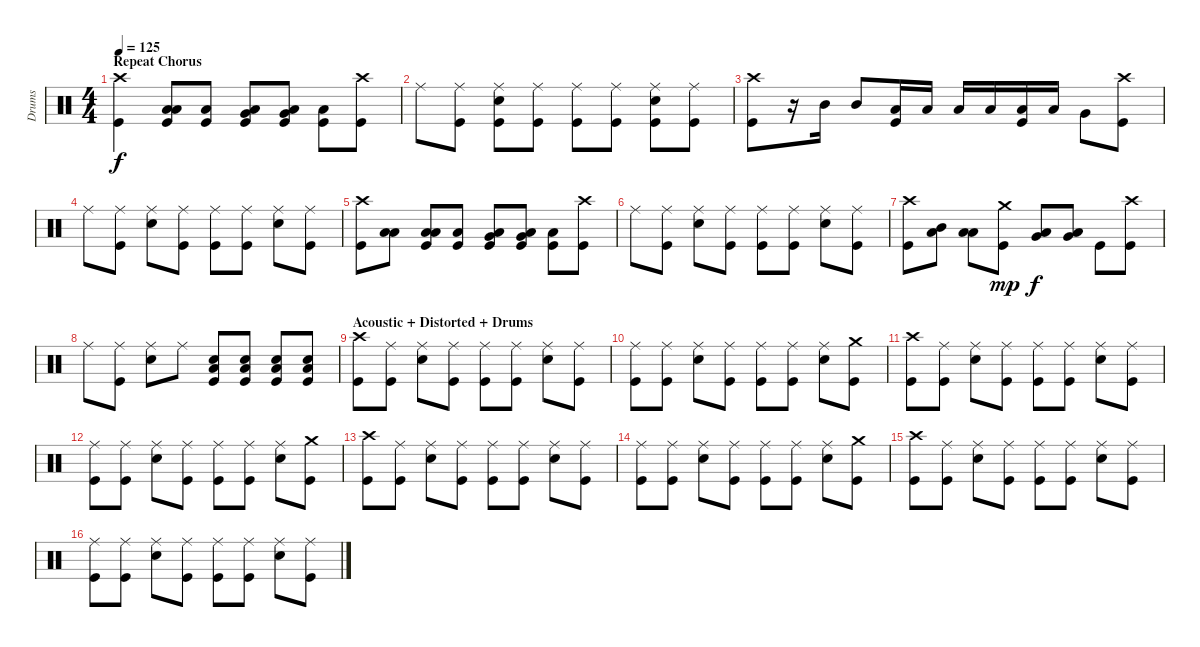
\track ("Drums" "Drums") {instrument percussion}
\staff {score}
\articulation defaults
\ts (4 4)
\section ("" "Repeat Chorus")
\tempo 125
\clef neutral
\ks c
("Crash high (hit)" "Kick (hit)").4{dy f} ("Low Tom (hit)" "Low Floor Tom (hit)" "Kick (hit)").8 ("Low Floor Tom (hit)" "Kick (hit)").8 ("Very Low Tom (hit)" "Low Floor Tom (hit)" "Kick (hit)").8 ("Very Low Tom (hit)" "Low Floor Tom (hit)" "Kick (hit)").8 ("Low Floor Tom (hit)" "Kick (hit)").8 ("Crash high (hit)" "Kick (hit)").8 |
"Ride (middle)".8 ("Ride (middle)" "Kick (hit)").8 ("Ride (middle)" "Snare (hit) 2" "Kick (hit)").8 ("Ride (middle)" "Kick (hit)").8 ("Ride (middle)" "Kick (hit)").8 ("Ride (middle)" "Kick (hit)").8 ("Ride (middle)" "Snare (hit) 2" "Kick (hit)").8 ("Ride (middle)" "Kick (hit)").8 |
("Crash high (hit)" "Kick (hit)").8 r.16 "Mid Tom (hit)".16 "Mid Tom (hit)".8 ("Low Tom (hit)" "Kick (hit)").16 "Low Tom (hit)".16 "Low Tom (hit)".16 "Low Tom (hit)".16 ("Low Tom (hit)" "Kick (hit)").16 "Low Tom (hit)".16 "Very Low Tom (hit)".8 ("Crash high (hit)" "Kick (hit)").8 |
"Ride (middle)".8 ("Ride (middle)" "Kick (hit)").8 ("Ride (middle)" "Snare (hit) 2").8 ("Ride (middle)" "Kick (hit)").8 ("Ride (middle)" "Kick (hit)").8 ("Ride (middle)" "Kick (hit)").8 ("Ride (middle)" "Snare (hit) 2").8 ("Ride (middle)" "Kick (hit)").8 |
("Crash high (hit)" "Kick (hit)").8 ("Low Tom (hit)" "Low Floor Tom (hit)").8 ("Low Tom (hit)" "Low Floor Tom (hit)" "Kick (hit)").8 ("Low Floor Tom (hit)" "Kick (hit)").8 ("Very Low Tom (hit)" "Low Floor Tom (hit)" "Kick (hit)").8 ("Very Low Tom (hit)" "Low Floor Tom (hit)" "Kick (hit)").8 ("Low Floor Tom (hit)" "Kick (hit)").8 ("Crash high (hit)" "Kick (hit)").8 |
"Ride (middle)".8 ("Ride (middle)" "Kick (hit)").8 ("Ride (middle)" "Snare (hit) 2").8 ("Ride (middle)" "Kick (hit)").8 ("Ride (middle)" "Kick (hit)").8 ("Ride (middle)" "Kick (hit)").8 ("Ride (middle)" "Snare (hit) 2").8 ("Ride (middle)" "Kick (hit)").8 |
("Crash high (hit)" "Kick (hit)").8 ("Mid Tom (hit)" "Low Floor Tom (hit)").8 ("Low Tom (hit)" "Low Floor Tom (hit)").8 ("Crash medium (hit)" "Kick (hit)").8{dy mp} ("Very Low Tom (hit)" "Low Floor Tom (hit)").8{dy f} ("Very Low Tom (hit)" "Low Floor Tom (hit)").8 "Kick (hit)".8 ("Crash high (hit)" "Kick (hit)").8 |
"Ride (middle)".8 ("Ride (middle)" "Kick (hit)").8 ("Ride (middle)" "Snare (hit) 2").8 "Ride (middle)".8 ("Snare (hit) 2" "Low Floor Tom (hit)" "Kick (hit)").8 ("Snare (hit) 2" "Low Floor Tom (hit)" "Kick (hit)").8 ("Snare (hit) 2" "Low Floor Tom (hit)" "Kick (hit)").8 ("Snare (hit) 2" "Low Floor Tom (hit)" "Kick (hit)").8 |
\section ("" "Acoustic + Distorted + Drums")
("Crash high (hit)" "Kick (hit)").8 ("Ride (middle)" "Kick (hit)").8 ("Ride (middle)" "Snare (hit) 2").8 ("Ride (middle)" "Kick (hit)").8 ("Ride (middle)" "Kick (hit)").8 ("Ride (middle)" "Kick (hit)").8 ("Ride (middle)" "Snare (hit) 2").8 ("Ride (middle)" "Kick (hit)").8 |
("Ride (middle)" "Kick (hit)").8 ("Ride (middle)" "Kick (hit)").8 ("Ride (middle)" "Snare (hit) 2").8 ("Ride (middle)" "Kick (hit)").8 ("Ride (middle)" "Kick (hit)").8 ("Ride (middle)" "Kick (hit)").8 ("Ride (middle)" "Snare (hit) 2").8 ("Crash medium (hit)" "Kick (hit)").8 |
("Crash high (hit)" "Kick (hit)").8 ("Ride (middle)" "Kick (hit)").8 ("Ride (middle)" "Snare (hit) 2").8 ("Ride (middle)" "Kick (hit)").8 ("Ride (middle)" "Kick (hit)").8 ("Ride (middle)" "Kick (hit)").8 ("Ride (middle)" "Snare (hit) 2").8 ("Ride (middle)" "Kick (hit)").8 |
("Ride (middle)" "Kick (hit)").8 ("Ride (middle)" "Kick (hit)").8 ("Ride (middle)" "Snare (hit) 2").8 ("Ride (middle)" "Kick (hit)").8 ("Ride (middle)" "Kick (hit)").8 ("Ride (middle)" "Kick (hit)").8 ("Ride (middle)" "Snare (hit) 2").8 ("Crash medium (hit)" "Kick (hit)").8 |
("Crash high (hit)" "Kick (hit)").8 ("Ride (middle)" "Kick (hit)").8 ("Ride (middle)" "Snare (hit) 2").8 ("Ride (middle)" "Kick (hit)").8 ("Ride (middle)" "Kick (hit)").8 ("Ride (middle)" "Kick (hit)").8 ("Ride (middle)" "Snare (hit) 2").8 ("Ride (middle)" "Kick (hit)").8 |
("Ride (middle)" "Kick (hit)").8 ("Ride (middle)" "Kick (hit)").8 ("Ride (middle)" "Snare (hit) 2").8 ("Ride (middle)" "Kick (hit)").8 ("Ride (middle)" "Kick (hit)").8 ("Ride (middle)" "Kick (hit)").8 ("Ride (middle)" "Snare (hit) 2").8 ("Crash medium (hit)" "Kick (hit)").8 |
("Crash high (hit)" "Kick (hit)").8 ("Ride (middle)" "Kick (hit)").8 ("Ride (middle)" "Snare (hit) 2").8 ("Ride (middle)" "Kick (hit)").8 ("Ride (middle)" "Kick (hit)").8 ("Ride (middle)" "Kick (hit)").8 ("Ride (middle)" "Snare (hit) 2").8 ("Ride (middle)" "Kick (hit)").8 |
("Ride (middle)" "Kick (hit)").8 ("Ride (middle)" "Kick (hit)").8 ("Ride (middle)" "Snare (hit) 2").8 ("Ride (middle)" "Kick (hit)").8 ("Ride (middle)" "Kick (hit)").8 ("Ride (middle)" "Kick (hit)").8 ("Ride (middle)" "Snare (hit) 2").8 ("Ride (middle)" "Kick (hit)").8
